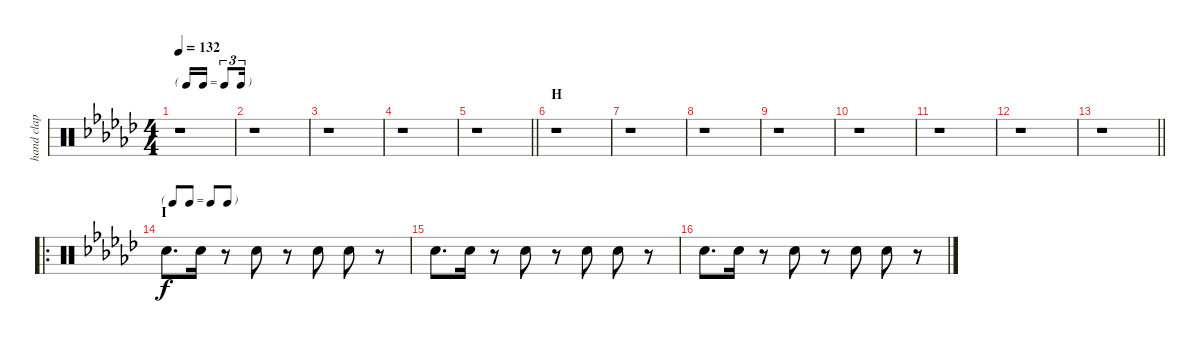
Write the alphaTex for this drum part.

\track ("hand clap" "hand clap") {instrument percussion}
\staff {score}
\articulation defaults
\ts (4 4)
\tf triplet16th
\tempo 132
\clef neutral
\ks gb
r.1{dy f} |
r.1 |
r.1 |
r.1 |
\barLineRight lightlight
r.1 |
\section ("" "H")
r.1 |
r.1 |
r.1 |
r.1 |
r.1 |
r.1 |
r.1 |
\barLineRight lightlight
r.1 |
\ro
\tf none
\section ("" "I")
"Hand Clap (hit)".8{d} "Hand Clap (hit)".16 r.8 "Hand Clap (hit)".8 r.8 "Hand Clap (hit)".8 "Hand Clap (hit)".8 r.8 |
"Hand Clap (hit)".8{d} "Hand Clap (hit)".16 r.8 "Hand Clap (hit)".8 r.8 "Hand Clap (hit)".8 "Hand Clap (hit)".8 r.8 |
"Hand Clap (hit)".8{d} "Hand Clap (hit)".16 r.8 "Hand Clap (hit)".8 r.8 "Hand Clap (hit)".8 "Hand Clap (hit)".8 r.8
